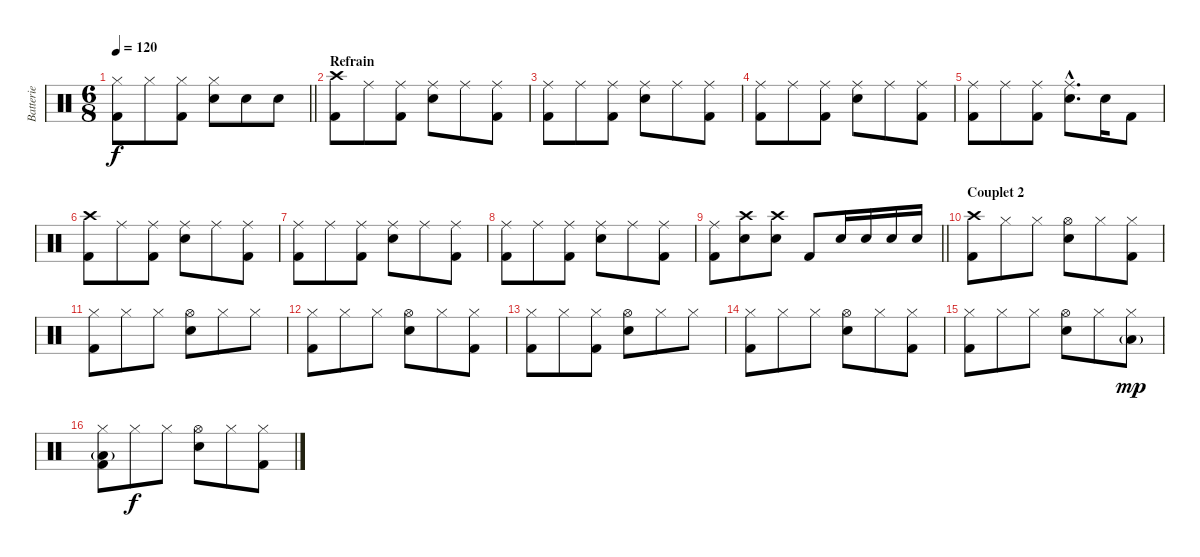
\track ("Batterie" "Batterie") {instrument percussion}
\staff {score}
\articulation defaults
\ts (6 8)
\tempo 120
\clef neutral
\barLineRight lightlight
\ks c
("Hi-Hat (closed)" "Kick (hit) 2").8{dy f} "Hi-Hat (closed)".8 ("Hi-Hat (closed)" "Kick (hit) 2").8 ("Hi-Hat (closed)" "Snare (hit) 2").8 "Snare (hit) 2".8 "Snare (hit) 2".8 |
\section ("" "Refrain")
("Crash high (hit)" "Kick (hit) 2").8 "Ride (middle)".8 ("Ride (middle)" "Kick (hit) 2").8 ("Ride (middle)" "Snare (hit) 2").8 "Ride (middle)".8 ("Ride (middle)" "Kick (hit) 2").8 |
("Ride (middle)" "Kick (hit) 2").8 "Ride (middle)".8 ("Ride (middle)" "Kick (hit) 2").8 ("Ride (middle)" "Snare (hit) 2").8 "Ride (middle)".8 ("Ride (middle)" "Kick (hit) 2").8 |
("Ride (middle)" "Kick (hit) 2").8 "Ride (middle)".8 ("Ride (middle)" "Kick (hit) 2").8 ("Ride (middle)" "Snare (hit) 2").8 "Ride (middle)".8 ("Ride (middle)" "Kick (hit) 2").8 |
("Ride (middle)" "Kick (hit) 2").8 "Ride (middle)".8 ("Ride (middle)" "Kick (hit) 2").8 ("Ride (middle)"{hac} "Snare (hit) 2"{hac}).8{d} "Snare (hit) 2".16 "Kick (hit) 2".8 |
("Crash high (hit)" "Kick (hit) 2").8 "Ride (middle)".8 ("Ride (middle)" "Kick (hit) 2").8 ("Ride (middle)" "Snare (hit) 2").8 "Ride (middle)".8 ("Ride (middle)" "Kick (hit) 2").8 |
("Ride (middle)" "Kick (hit) 2").8 "Ride (middle)".8 ("Ride (middle)" "Kick (hit) 2").8 ("Ride (middle)" "Snare (hit) 2").8 "Ride (middle)".8 ("Ride (middle)" "Kick (hit) 2").8 |
("Ride (middle)" "Kick (hit) 2").8 "Ride (middle)".8 ("Ride (middle)" "Kick (hit) 2").8 ("Ride (middle)" "Snare (hit) 2").8 "Ride (middle)".8 ("Ride (middle)" "Kick (hit) 2").8 |
\barLineRight lightlight
("Ride (middle)" "Kick (hit) 2").8 ("Crash high (hit)" "Snare (hit) 2").8 ("Crash high (hit)" "Snare (hit) 2").8 "Kick (hit) 2".8 "Snare (hit) 2".16 "Snare (hit) 2".16 "Snare (hit) 2".16 "Snare (hit) 2".16 |
\section ("" "Couplet 2")
("Crash high (hit)" "Kick (hit) 2").8 "Hi-Hat (closed)".8 "Hi-Hat (closed)".8 ("Hi-Hat (open)" "Snare (hit) 2").8 "Hi-Hat (closed)".8 ("Hi-Hat (closed)" "Kick (hit) 2").8 |
("Hi-Hat (closed)" "Kick (hit) 2").8 "Hi-Hat (closed)".8 "Hi-Hat (closed)".8 ("Hi-Hat (open)" "Snare (hit) 2").8 "Hi-Hat (closed)".8 "Hi-Hat (closed)".8 |
("Hi-Hat (closed)" "Kick (hit) 2").8 "Hi-Hat (closed)".8 "Hi-Hat (closed)".8 ("Hi-Hat (open)" "Snare (hit) 2").8 "Hi-Hat (closed)".8 ("Hi-Hat (closed)" "Kick (hit) 2").8 |
("Hi-Hat (closed)" "Kick (hit) 2").8 "Hi-Hat (closed)".8 ("Hi-Hat (closed)" "Kick (hit) 2").8 ("Hi-Hat (open)" "Snare (hit) 2").8 "Hi-Hat (closed)".8 "Hi-Hat (closed)".8 |
("Hi-Hat (closed)" "Kick (hit) 2").8 "Hi-Hat (closed)".8 "Hi-Hat (closed)".8 ("Hi-Hat (open)" "Snare (hit) 2").8 "Hi-Hat (closed)".8 ("Hi-Hat (closed)" "Kick (hit) 2").8 |
("Hi-Hat (closed)" "Kick (hit) 2").8 "Hi-Hat (closed)".8 "Hi-Hat (closed)".8 ("Hi-Hat (open)" "Snare (hit) 2").8 "Hi-Hat (closed)".8 ("Hi-Hat (closed)" "Low Tom (hit)"{g}).8{dy mp} |
("Hi-Hat (closed)" "Low Floor Tom (hit)"{g} "Kick (hit) 2").8 "Hi-Hat (closed)".8{dy f} "Hi-Hat (closed)".8 ("Hi-Hat (open)" "Snare (hit) 2").8 "Hi-Hat (closed)".8 ("Hi-Hat (closed)" "Kick (hit) 2").8
